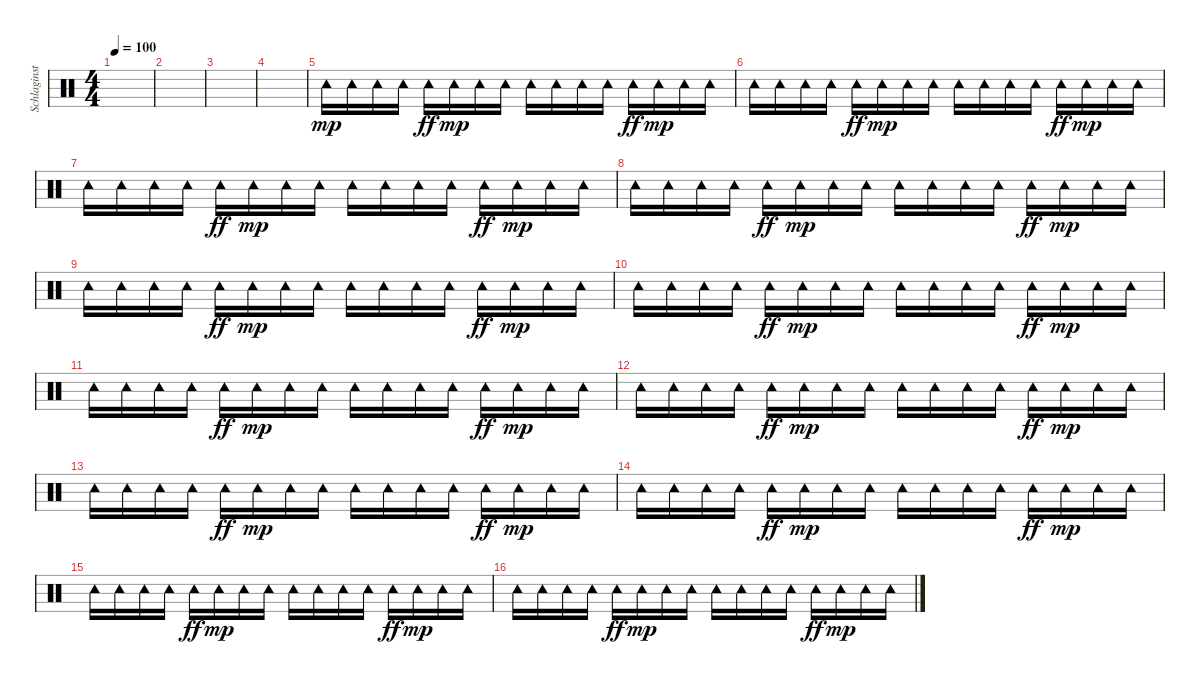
\track ("Schlaginstrumente - Auswahl" "Schlaginst") {instrument percussion}
\staff {score}
\articulation defaults
\ts (4 4)
\tempo 100
\clef neutral
\ks c
|
|
|
|
"Tambourine (hit)".16{dy mp} "Tambourine (hit)".16 "Tambourine (hit)".16 "Tambourine (hit)".16 "Tambourine (hit)".16{dy ff} "Tambourine (hit)".16{dy mp} "Tambourine (hit)".16 "Tambourine (hit)".16 "Tambourine (hit)".16 "Tambourine (hit)".16 "Tambourine (hit)".16 "Tambourine (hit)".16 "Tambourine (hit)".16{dy ff} "Tambourine (hit)".16{dy mp} "Tambourine (hit)".16 "Tambourine (hit)".16 |
"Tambourine (hit)".16 "Tambourine (hit)".16 "Tambourine (hit)".16 "Tambourine (hit)".16 "Tambourine (hit)".16{dy ff} "Tambourine (hit)".16{dy mp} "Tambourine (hit)".16 "Tambourine (hit)".16 "Tambourine (hit)".16 "Tambourine (hit)".16 "Tambourine (hit)".16 "Tambourine (hit)".16 "Tambourine (hit)".16{dy ff} "Tambourine (hit)".16{dy mp} "Tambourine (hit)".16 "Tambourine (hit)".16 |
"Tambourine (hit)".16 "Tambourine (hit)".16 "Tambourine (hit)".16 "Tambourine (hit)".16 "Tambourine (hit)".16{dy ff} "Tambourine (hit)".16{dy mp} "Tambourine (hit)".16 "Tambourine (hit)".16 "Tambourine (hit)".16 "Tambourine (hit)".16 "Tambourine (hit)".16 "Tambourine (hit)".16 "Tambourine (hit)".16{dy ff} "Tambourine (hit)".16{dy mp} "Tambourine (hit)".16 "Tambourine (hit)".16 |
"Tambourine (hit)".16 "Tambourine (hit)".16 "Tambourine (hit)".16 "Tambourine (hit)".16 "Tambourine (hit)".16{dy ff} "Tambourine (hit)".16{dy mp} "Tambourine (hit)".16 "Tambourine (hit)".16 "Tambourine (hit)".16 "Tambourine (hit)".16 "Tambourine (hit)".16 "Tambourine (hit)".16 "Tambourine (hit)".16{dy ff} "Tambourine (hit)".16{dy mp} "Tambourine (hit)".16 "Tambourine (hit)".16 |
"Tambourine (hit)".16 "Tambourine (hit)".16 "Tambourine (hit)".16 "Tambourine (hit)".16 "Tambourine (hit)".16{dy ff} "Tambourine (hit)".16{dy mp} "Tambourine (hit)".16 "Tambourine (hit)".16 "Tambourine (hit)".16 "Tambourine (hit)".16 "Tambourine (hit)".16 "Tambourine (hit)".16 "Tambourine (hit)".16{dy ff} "Tambourine (hit)".16{dy mp} "Tambourine (hit)".16 "Tambourine (hit)".16 |
"Tambourine (hit)".16 "Tambourine (hit)".16 "Tambourine (hit)".16 "Tambourine (hit)".16 "Tambourine (hit)".16{dy ff} "Tambourine (hit)".16{dy mp} "Tambourine (hit)".16 "Tambourine (hit)".16 "Tambourine (hit)".16 "Tambourine (hit)".16 "Tambourine (hit)".16 "Tambourine (hit)".16 "Tambourine (hit)".16{dy ff} "Tambourine (hit)".16{dy mp} "Tambourine (hit)".16 "Tambourine (hit)".16 |
"Tambourine (hit)".16 "Tambourine (hit)".16 "Tambourine (hit)".16 "Tambourine (hit)".16 "Tambourine (hit)".16{dy ff} "Tambourine (hit)".16{dy mp} "Tambourine (hit)".16 "Tambourine (hit)".16 "Tambourine (hit)".16 "Tambourine (hit)".16 "Tambourine (hit)".16 "Tambourine (hit)".16 "Tambourine (hit)".16{dy ff} "Tambourine (hit)".16{dy mp} "Tambourine (hit)".16 "Tambourine (hit)".16 |
"Tambourine (hit)".16 "Tambourine (hit)".16 "Tambourine (hit)".16 "Tambourine (hit)".16 "Tambourine (hit)".16{dy ff} "Tambourine (hit)".16{dy mp} "Tambourine (hit)".16 "Tambourine (hit)".16 "Tambourine (hit)".16 "Tambourine (hit)".16 "Tambourine (hit)".16 "Tambourine (hit)".16 "Tambourine (hit)".16{dy ff} "Tambourine (hit)".16{dy mp} "Tambourine (hit)".16 "Tambourine (hit)".16 |
"Tambourine (hit)".16 "Tambourine (hit)".16 "Tambourine (hit)".16 "Tambourine (hit)".16 "Tambourine (hit)".16{dy ff} "Tambourine (hit)".16{dy mp} "Tambourine (hit)".16 "Tambourine (hit)".16 "Tambourine (hit)".16 "Tambourine (hit)".16 "Tambourine (hit)".16 "Tambourine (hit)".16 "Tambourine (hit)".16{dy ff} "Tambourine (hit)".16{dy mp} "Tambourine (hit)".16 "Tambourine (hit)".16 |
"Tambourine (hit)".16 "Tambourine (hit)".16 "Tambourine (hit)".16 "Tambourine (hit)".16 "Tambourine (hit)".16{dy ff} "Tambourine (hit)".16{dy mp} "Tambourine (hit)".16 "Tambourine (hit)".16 "Tambourine (hit)".16 "Tambourine (hit)".16 "Tambourine (hit)".16 "Tambourine (hit)".16 "Tambourine (hit)".16{dy ff} "Tambourine (hit)".16{dy mp} "Tambourine (hit)".16 "Tambourine (hit)".16 |
"Tambourine (hit)".16 "Tambourine (hit)".16 "Tambourine (hit)".16 "Tambourine (hit)".16 "Tambourine (hit)".16{dy ff} "Tambourine (hit)".16{dy mp} "Tambourine (hit)".16 "Tambourine (hit)".16 "Tambourine (hit)".16 "Tambourine (hit)".16 "Tambourine (hit)".16 "Tambourine (hit)".16 "Tambourine (hit)".16{dy ff} "Tambourine (hit)".16{dy mp} "Tambourine (hit)".16 "Tambourine (hit)".16 |
"Tambourine (hit)".16 "Tambourine (hit)".16 "Tambourine (hit)".16 "Tambourine (hit)".16 "Tambourine (hit)".16{dy ff} "Tambourine (hit)".16{dy mp} "Tambourine (hit)".16 "Tambourine (hit)".16 "Tambourine (hit)".16 "Tambourine (hit)".16 "Tambourine (hit)".16 "Tambourine (hit)".16 "Tambourine (hit)".16{dy ff} "Tambourine (hit)".16{dy mp} "Tambourine (hit)".16 "Tambourine (hit)".16
